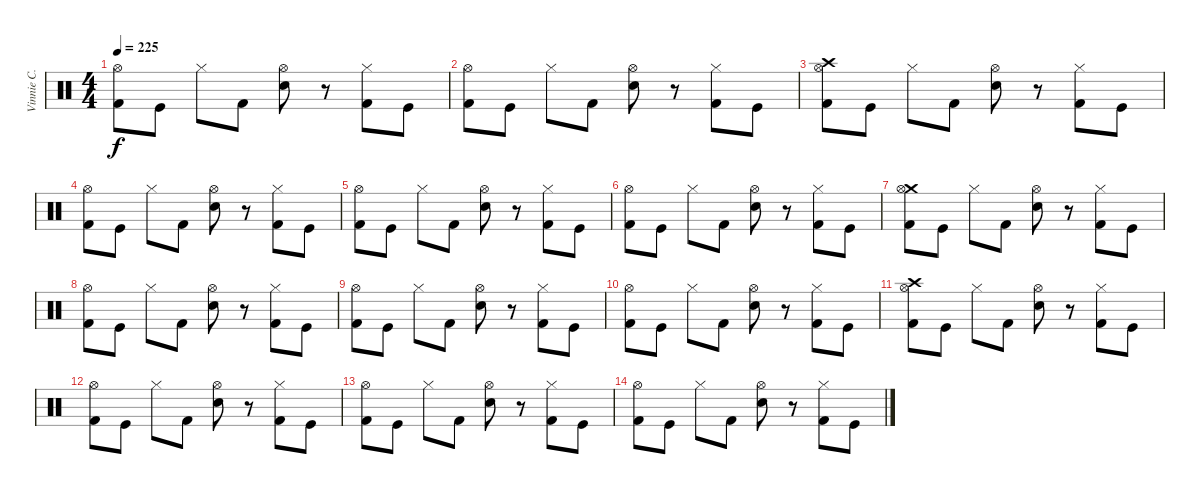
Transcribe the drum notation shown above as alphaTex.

\track ("Vinnie C." "Vinnie C.") {instrument percussion}
\staff {score}
\articulation defaults
\ts (4 4)
\tempo 225
\clef neutral
\ks c
("Hi-Hat (open)" "Kick (hit) 2").8{dy f} "Kick (hit)".8 "Hi-Hat (closed)".8 "Kick (hit) 2".8 ("Hi-Hat (open)" "Electric Snare (hit)").8 r.8 ("Hi-Hat (closed)" "Kick (hit) 2").8 "Kick (hit)".8 |
("Hi-Hat (open)" "Kick (hit) 2").8 "Kick (hit)".8 "Hi-Hat (closed)".8 "Kick (hit) 2".8 ("Hi-Hat (open)" "Electric Snare (hit)").8 r.8 ("Hi-Hat (closed)" "Kick (hit) 2").8 "Kick (hit)".8 |
("Crash high (hit)" "Hi-Hat (open)" "Kick (hit) 2").8 "Kick (hit)".8 "Hi-Hat (closed)".8 "Kick (hit) 2".8 ("Hi-Hat (open)" "Electric Snare (hit)").8 r.8 ("Hi-Hat (closed)" "Kick (hit) 2").8 "Kick (hit)".8 |
("Hi-Hat (open)" "Kick (hit) 2").8 "Kick (hit)".8 "Hi-Hat (closed)".8 "Kick (hit) 2".8 ("Hi-Hat (open)" "Electric Snare (hit)").8 r.8 ("Hi-Hat (closed)" "Kick (hit) 2").8 "Kick (hit)".8 |
("Hi-Hat (open)" "Kick (hit) 2").8 "Kick (hit)".8 "Hi-Hat (closed)".8 "Kick (hit) 2".8 ("Hi-Hat (open)" "Electric Snare (hit)").8 r.8 ("Hi-Hat (closed)" "Kick (hit) 2").8 "Kick (hit)".8 |
("Hi-Hat (open)" "Kick (hit) 2").8 "Kick (hit)".8 "Hi-Hat (closed)".8 "Kick (hit) 2".8 ("Hi-Hat (open)" "Electric Snare (hit)").8 r.8 ("Hi-Hat (closed)" "Kick (hit) 2").8 "Kick (hit)".8 |
("Crash medium (hit)" "Hi-Hat (open)" "Kick (hit) 2").8 "Kick (hit)".8 "Hi-Hat (closed)".8 "Kick (hit) 2".8 ("Hi-Hat (open)" "Electric Snare (hit)").8 r.8 ("Hi-Hat (closed)" "Kick (hit) 2").8 "Kick (hit)".8 |
("Hi-Hat (open)" "Kick (hit) 2").8 "Kick (hit)".8 "Hi-Hat (closed)".8 "Kick (hit) 2".8 ("Hi-Hat (open)" "Electric Snare (hit)").8 r.8 ("Hi-Hat (closed)" "Kick (hit) 2").8 "Kick (hit)".8 |
("Hi-Hat (open)" "Kick (hit) 2").8 "Kick (hit)".8 "Hi-Hat (closed)".8 "Kick (hit) 2".8 ("Hi-Hat (open)" "Electric Snare (hit)").8 r.8 ("Hi-Hat (closed)" "Kick (hit) 2").8 "Kick (hit)".8 |
("Hi-Hat (open)" "Kick (hit) 2").8 "Kick (hit)".8 "Hi-Hat (closed)".8 "Kick (hit) 2".8 ("Hi-Hat (open)" "Electric Snare (hit)").8 r.8 ("Hi-Hat (closed)" "Kick (hit) 2").8 "Kick (hit)".8 |
("Crash high (hit)" "Hi-Hat (open)" "Kick (hit) 2").8 "Kick (hit)".8 "Hi-Hat (closed)".8 "Kick (hit) 2".8 ("Hi-Hat (open)" "Electric Snare (hit)").8 r.8 ("Hi-Hat (closed)" "Kick (hit) 2").8 "Kick (hit)".8 |
("Hi-Hat (open)" "Kick (hit) 2").8 "Kick (hit)".8 "Hi-Hat (closed)".8 "Kick (hit) 2".8 ("Hi-Hat (open)" "Electric Snare (hit)").8 r.8 ("Hi-Hat (closed)" "Kick (hit) 2").8 "Kick (hit)".8 |
("Hi-Hat (open)" "Kick (hit) 2").8 "Kick (hit)".8 "Hi-Hat (closed)".8 "Kick (hit) 2".8 ("Hi-Hat (open)" "Electric Snare (hit)").8 r.8 ("Hi-Hat (closed)" "Kick (hit) 2").8 "Kick (hit)".8 |
("Hi-Hat (open)" "Kick (hit) 2").8 "Kick (hit)".8 "Hi-Hat (closed)".8 "Kick (hit) 2".8 ("Hi-Hat (open)" "Electric Snare (hit)").8 r.8 ("Hi-Hat (closed)" "Kick (hit) 2").8 "Kick (hit)".8
